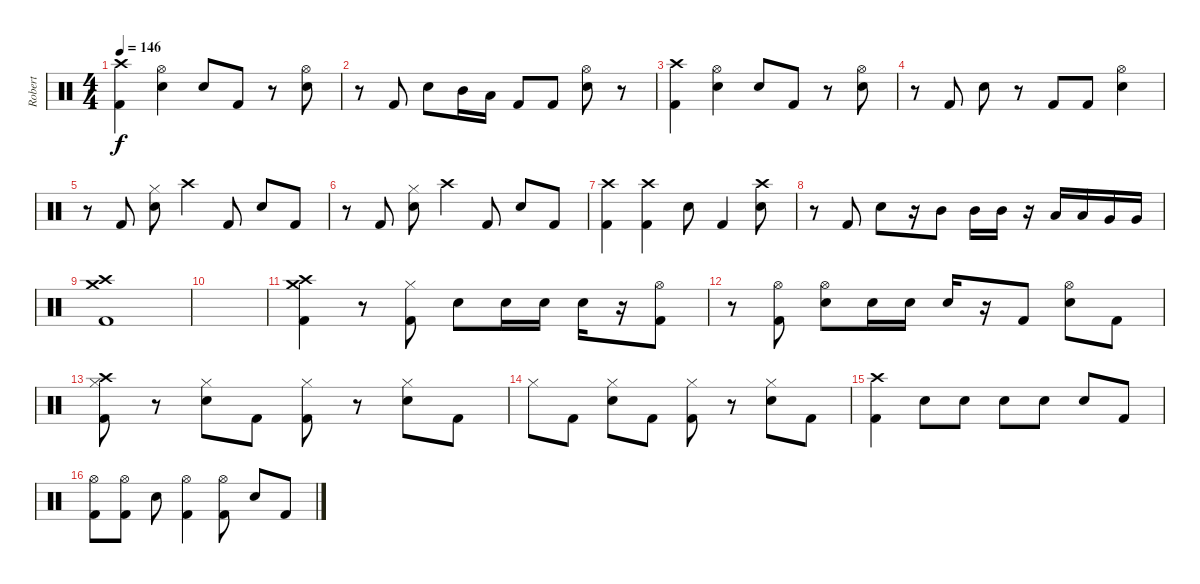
\track ("Robert" "Robert") {instrument percussion}
\staff {score}
\articulation defaults
\ts (4 4)
\tempo 146
\clef neutral
\ks c
("Crash high (hit)" "Kick (hit) 2").4{dy f} ("Hi-Hat (open)" "Electric Snare (hit)").4 "Electric Snare (hit)".8 "Kick (hit) 2".8 r.8 ("Hi-Hat (open)" "Electric Snare (hit)").8 |
r.8 "Kick (hit) 2".8 "Electric Snare (hit)".8 "Mid Tom (hit)".16 "Low Tom (hit)".16 "Kick (hit) 2".8 "Kick (hit) 2".8 ("Hi-Hat (open)" "Electric Snare (hit)").8 r.8 |
("Crash high (hit)" "Kick (hit) 2").4 ("Hi-Hat (open)" "Electric Snare (hit)").4 "Electric Snare (hit)".8 "Kick (hit) 2".8 r.8 ("Hi-Hat (open)" "Electric Snare (hit)").8 |
r.8 "Kick (hit) 2".8 "Electric Snare (hit)".8 r.8 "Kick (hit) 2".8 "Kick (hit) 2".8 ("Hi-Hat (open)" "Electric Snare (hit)").4 |
r.8 "Kick (hit) 2".8 ("Hi-Hat (closed)" "Electric Snare (hit)").8 "Crash high (hit)".4 "Kick (hit) 2".8 "Electric Snare (hit)".8 "Kick (hit) 2".8 |
r.8 "Kick (hit) 2".8 ("Hi-Hat (closed)" "Electric Snare (hit)").8 "Crash high (hit)".4 "Kick (hit) 2".8 "Electric Snare (hit)".8 "Kick (hit) 2".8 |
("Crash high (hit)" "Kick (hit) 2").4 ("Crash high (hit)" "Kick (hit) 2").4 "Electric Snare (hit)".8 "Kick (hit) 2".4 ("Crash high (hit)" "Electric Snare (hit)").8 |
r.8 "Kick (hit) 2".8 "Electric Snare (hit)".8 r.16 "Mid Tom (hit)".8 "Mid Tom (hit)".16 "Mid Tom (hit)".16 r.16 "Low Tom (hit)".16 "Low Tom (hit)".16 "Very Low Tom (hit)".16 "Very Low Tom (hit)".16 |
("Crash medium (hit)" "Crash high (hit)" "Kick (hit) 2").1 |
|
("Crash medium (hit)" "Crash high (hit)" "Kick (hit) 2").4 r.8 ("Hi-Hat (closed)" "Kick (hit) 2").8 "Electric Snare (hit)".8 "Electric Snare (hit)".16 "Electric Snare (hit)".16 "Electric Snare (hit)".16 r.16 ("Hi-Hat (open)" "Kick (hit) 2").8 |
r.8 ("Hi-Hat (open)" "Kick (hit) 2").8 ("Hi-Hat (open)" "Electric Snare (hit)").8 "Electric Snare (hit)".16 "Electric Snare (hit)".16 "Electric Snare (hit)".16 r.16 "Kick (hit) 2".8 ("Hi-Hat (open)" "Electric Snare (hit)").8 "Kick (hit) 2".8 |
("Crash high (hit)" "Hi-Hat (closed)" "Kick (hit) 2").8 r.8 ("Hi-Hat (closed)" "Electric Snare (hit)").8 "Kick (hit) 2".8 ("Hi-Hat (closed)" "Kick (hit) 2").8 r.8 ("Hi-Hat (closed)" "Electric Snare (hit)").8 "Kick (hit) 2".8 |
"Hi-Hat (closed)".8 "Kick (hit) 2".8 ("Hi-Hat (closed)" "Electric Snare (hit)").8 "Kick (hit) 2".8 ("Hi-Hat (closed)" "Kick (hit) 2").8 r.8 ("Hi-Hat (closed)" "Electric Snare (hit)").8 "Kick (hit) 2".8 |
("Crash high (hit)" "Kick (hit) 2").4 "Electric Snare (hit)".8 "Electric Snare (hit)".8 "Electric Snare (hit)".8 "Electric Snare (hit)".8 "Electric Snare (hit)".8 "Kick (hit) 2".8 |
("Hi-Hat (open)" "Kick (hit) 2").8 ("Hi-Hat (open)" "Kick (hit) 2").8 "Electric Snare (hit)".8 ("Hi-Hat (open)" "Kick (hit) 2").4 ("Hi-Hat (open)" "Kick (hit) 2").8 "Electric Snare (hit)".8 "Kick (hit) 2".8
